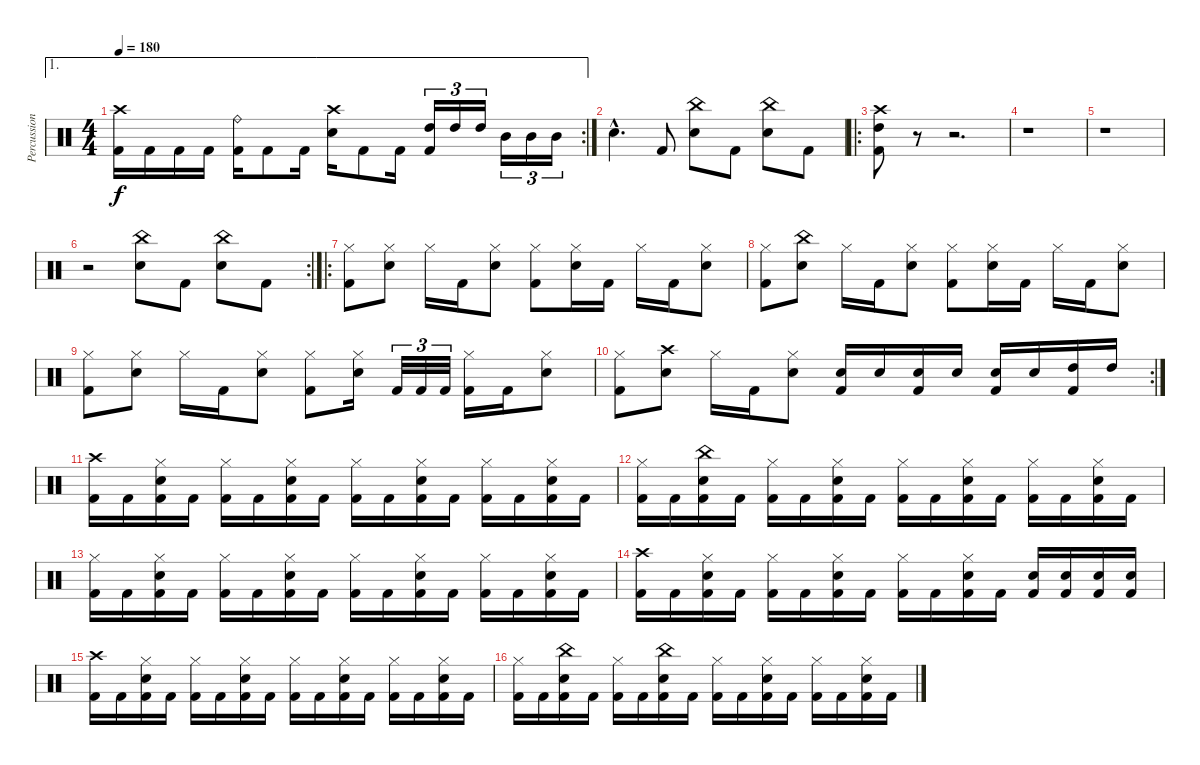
\track ("Percussion" "Percussion") {instrument percussion}
\staff {score}
\articulation defaults
\ae 1
\rc 2
\ts (4 4)
\tempo 180
\clef neutral
\ks c
("Crash high (hit)" "Kick (hit) 2").16{dy f} "Kick (hit) 2".16 "Kick (hit) 2".16 "Kick (hit) 2".16 ("Ride (bell)" "Kick (hit) 2").16 "Kick (hit) 2".8 "Kick (hit) 2".16 ("Crash high (hit)" "Snare (hit) 2").16 "Kick (hit) 2".8 "Kick (hit) 2".16 ("High Tom (hit)" "Kick (hit) 2").16{tu (3 2)} "High Tom (hit)".16{tu (3 2)} "High Tom (hit)".16{tu (3 2)} "Mid Tom (hit)".16{tu (3 2)} "Mid Tom (hit)".16{tu (3 2)} "Mid Tom (hit)".16{tu (3 2)} |
"Snare (hit) 2"{hac}.4{d} "Kick (hit) 2".8 ("China (hit)" "Snare (hit) 2").8 "Kick (hit) 2".8 ("China (hit)" "Snare (hit) 2").8 "Kick (hit) 2".8 |
\ro
("Crash high (hit)" "High Tom (hit)" "Kick (hit) 2").8 r.8 r.2{d} |
r.1 |
r.1 |
\rc 2
r.2 ("China (hit)" "Snare (hit) 2").8 "Kick (hit) 2".8 ("China (hit)" "Snare (hit) 2").8 "Kick (hit) 2".8 |
\ro
("Hi-Hat (closed)" "Kick (hit) 2").8 ("Hi-Hat (closed)" "Snare (hit) 2").8 "Hi-Hat (closed)".16 "Kick (hit) 2".16 ("Hi-Hat (closed)" "Snare (hit) 2").8 ("Hi-Hat (closed)" "Kick (hit) 2").8 ("Hi-Hat (closed)" "Snare (hit) 2").16 "Kick (hit) 2".16 "Hi-Hat (closed)".16 "Kick (hit) 2".16 ("Hi-Hat (closed)" "Snare (hit) 2").8 |
("Hi-Hat (closed)" "Kick (hit) 2").8 ("China (hit)" "Snare (hit) 2").8 "Hi-Hat (closed)".16 "Kick (hit) 2".16 ("Hi-Hat (closed)" "Snare (hit) 2").8 ("Hi-Hat (closed)" "Kick (hit) 2").8 ("Hi-Hat (closed)" "Snare (hit) 2").16 "Kick (hit) 2".16 "Hi-Hat (closed)".16 "Kick (hit) 2".16 ("Hi-Hat (closed)" "Snare (hit) 2").8 |
("Hi-Hat (closed)" "Kick (hit) 2").8 ("Hi-Hat (closed)" "Snare (hit) 2").8 "Hi-Hat (closed)".16 "Kick (hit) 2".16 ("Hi-Hat (closed)" "Snare (hit) 2").8 ("Hi-Hat (closed)" "Kick (hit) 2").8 ("Hi-Hat (closed)" "Snare (hit) 2").16 "Kick (hit) 2".32{tu (3 2)} "Kick (hit) 2".32{tu (3 2)} "Kick (hit) 2".32{tu (3 2)} ("Hi-Hat (closed)" "Kick (hit) 2").16 "Kick (hit) 2".16 ("Hi-Hat (closed)" "Snare (hit) 2").8 |
\rc 2
("Hi-Hat (closed)" "Kick (hit) 2").8 ("Crash high (hit)" "Snare (hit) 2").8 "Hi-Hat (closed)".16 "Kick (hit) 2".16 ("Hi-Hat (closed)" "Snare (hit) 2").8 ("Snare (hit) 2" "Kick (hit) 2").16 "Snare (hit) 2".16 ("Snare (hit) 2" "Kick (hit) 2").16 "Snare (hit) 2".16 ("Snare (hit) 2" "Kick (hit) 2").16 "Snare (hit) 2".16 ("High Tom (hit)" "Kick (hit) 2").16 "High Tom (hit)".16 |
("Crash high (hit)" "Kick (hit) 2").16 "Kick (hit) 2".16 ("Hi-Hat (closed)" "Snare (hit) 2" "Kick (hit) 2").16 "Kick (hit) 2".16 ("Hi-Hat (closed)" "Kick (hit) 2").16 "Kick (hit) 2".16 ("Hi-Hat (closed)" "Snare (hit) 2" "Kick (hit) 2").16 "Kick (hit) 2".16 ("Hi-Hat (closed)" "Kick (hit) 2").16 "Kick (hit) 2".16 ("Hi-Hat (closed)" "Snare (hit) 2" "Kick (hit) 2").16 "Kick (hit) 2".16 ("Hi-Hat (closed)" "Kick (hit) 2").16 "Kick (hit) 2".16 ("Hi-Hat (closed)" "Snare (hit) 2" "Kick (hit) 2").16 "Kick (hit) 2".16 |
("Hi-Hat (closed)" "Kick (hit) 2").16 "Kick (hit) 2".16 ("China (hit)" "Snare (hit) 2" "Kick (hit) 2").16 "Kick (hit) 2".16 ("Hi-Hat (closed)" "Kick (hit) 2").16 "Kick (hit) 2".16 ("Hi-Hat (closed)" "Snare (hit) 2" "Kick (hit) 2").16 "Kick (hit) 2".16 ("Hi-Hat (closed)" "Kick (hit) 2").16 "Kick (hit) 2".16 ("Hi-Hat (closed)" "Snare (hit) 2" "Kick (hit) 2").16 "Kick (hit) 2".16 ("Hi-Hat (closed)" "Kick (hit) 2").16 "Kick (hit) 2".16 ("Hi-Hat (closed)" "Snare (hit) 2" "Kick (hit) 2").16 "Kick (hit) 2".16 |
("Hi-Hat (closed)" "Kick (hit) 2").16 "Kick (hit) 2".16 ("Hi-Hat (closed)" "Snare (hit) 2" "Kick (hit) 2").16 "Kick (hit) 2".16 ("Hi-Hat (closed)" "Kick (hit) 2").16 "Kick (hit) 2".16 ("Hi-Hat (closed)" "Snare (hit) 2" "Kick (hit) 2").16 "Kick (hit) 2".16 ("Hi-Hat (closed)" "Kick (hit) 2").16 "Kick (hit) 2".16 ("Hi-Hat (closed)" "Snare (hit) 2" "Kick (hit) 2").16 "Kick (hit) 2".16 ("Hi-Hat (closed)" "Kick (hit) 2").16 "Kick (hit) 2".16 ("Hi-Hat (closed)" "Snare (hit) 2" "Kick (hit) 2").16 "Kick (hit) 2".16 |
("Crash high (hit)" "Kick (hit) 2").16 "Kick (hit) 2".16 ("Hi-Hat (closed)" "Snare (hit) 2" "Kick (hit) 2").16 "Kick (hit) 2".16 ("Hi-Hat (closed)" "Kick (hit) 2").16 "Kick (hit) 2".16 ("Hi-Hat (closed)" "Snare (hit) 2" "Kick (hit) 2").16 "Kick (hit) 2".16 ("Hi-Hat (closed)" "Kick (hit) 2").16 "Kick (hit) 2".16 ("Hi-Hat (closed)" "Snare (hit) 2" "Kick (hit) 2").16 "Kick (hit) 2".16 ("Snare (hit) 2" "Kick (hit) 2").16 ("Snare (hit) 2" "Kick (hit) 2").16 ("Snare (hit) 2" "Kick (hit) 2").16 ("Snare (hit) 2" "Kick (hit) 2").16 |
("Crash high (hit)" "Kick (hit) 2").16 "Kick (hit) 2".16 ("Hi-Hat (closed)" "Snare (hit) 2" "Kick (hit) 2").16 "Kick (hit) 2".16 ("Hi-Hat (closed)" "Kick (hit) 2").16 "Kick (hit) 2".16 ("Hi-Hat (closed)" "Snare (hit) 2" "Kick (hit) 2").16 "Kick (hit) 2".16 ("Hi-Hat (closed)" "Kick (hit) 2").16 "Kick (hit) 2".16 ("Hi-Hat (closed)" "Snare (hit) 2" "Kick (hit) 2").16 "Kick (hit) 2".16 ("Hi-Hat (closed)" "Kick (hit) 2").16 "Kick (hit) 2".16 ("Hi-Hat (closed)" "Snare (hit) 2" "Kick (hit) 2").16 "Kick (hit) 2".16 |
("Hi-Hat (closed)" "Kick (hit) 2").16 "Kick (hit) 2".16 ("China (hit)" "Snare (hit) 2" "Kick (hit) 2").16 "Kick (hit) 2".16 ("Hi-Hat (closed)" "Kick (hit) 2").16 "Kick (hit) 2".16 ("China (hit)" "Snare (hit) 2" "Kick (hit) 2").16 "Kick (hit) 2".16 ("Hi-Hat (closed)" "Kick (hit) 2").16 "Kick (hit) 2".16 ("Hi-Hat (closed)" "Snare (hit) 2" "Kick (hit) 2").16 "Kick (hit) 2".16 ("Hi-Hat (closed)" "Kick (hit) 2").16 "Kick (hit) 2".16 ("Hi-Hat (closed)" "Snare (hit) 2" "Kick (hit) 2").16 "Kick (hit) 2".16
